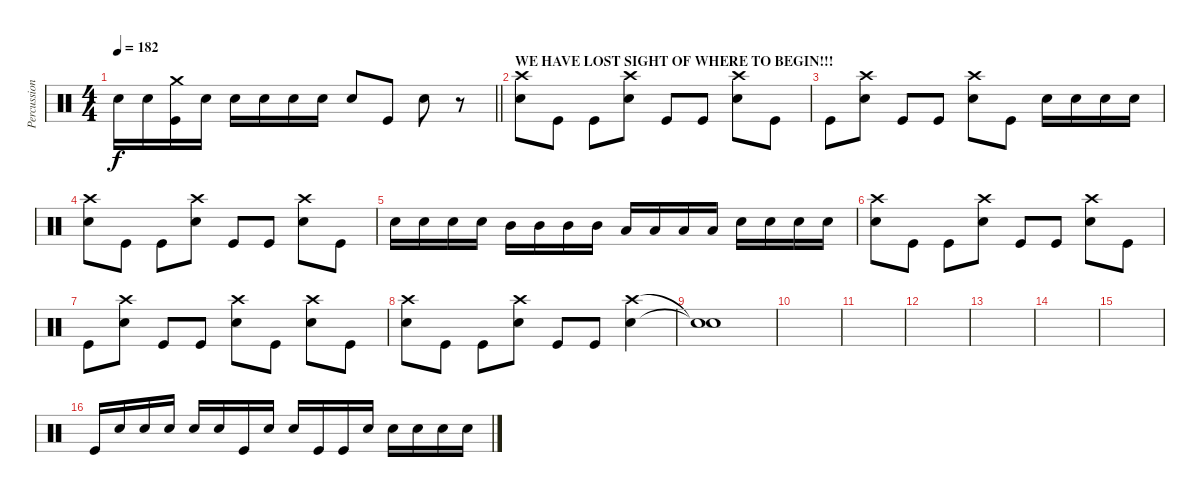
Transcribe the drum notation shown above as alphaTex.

\track ("Percussion" "Percussion") {instrument percussion}
\staff {score}
\articulation defaults
\ts (4 4)
\tempo 182
\clef neutral
\barLineRight lightlight
\ks c "Snare (hit) 2".16{dy f} "Snare (hit) 2".16
("Crash medium (hit)" "Kick (hit)").16 "Snare (hit) 2".16 "Snare (hit) 2".16 "Snare (hit) 2".16 "Snare (hit) 2".16 "Snare (hit) 2".16 "Snare (hit) 2".8 "Kick (hit)".8 "Snare (hit) 2".8 r.8 |
\section ("" "WE HAVE LOST SIGHT OF WHERE TO BEGIN!!!")
("Crash high (hit)" "Snare (hit) 2").8 "Kick (hit)".8 "Kick (hit)".8 ("Snare (hit) 2" "Crash high (hit)").8 "Kick (hit)".8 "Kick (hit)".8 ("Crash high (hit)" "Snare (hit) 2").8 "Kick (hit)".8 |
"Kick (hit)".8 ("Crash high (hit)" "Snare (hit) 2").8 "Kick (hit)".8 "Kick (hit)".8 ("Crash high (hit)" "Snare (hit) 2").8 "Kick (hit)".8 "Snare (hit) 2".16 "Snare (hit) 2".16 "Snare (hit) 2".16 "Snare (hit) 2".16 |
("Crash high (hit)" "Snare (hit) 2").8 "Kick (hit)".8 "Kick (hit)".8 ("Snare (hit) 2" "Crash high (hit)").8 "Kick (hit)".8 "Kick (hit)".8 ("Crash high (hit)" "Snare (hit) 2").8 "Kick (hit)".8 |
"Snare (hit) 2".16 "Snare (hit) 2".16 "Snare (hit) 2".16 "Snare (hit) 2".16 "Mid Tom (hit)".16 "Mid Tom (hit)".16 "Mid Tom (hit)".16 "Mid Tom (hit)".16 "Low Tom (hit)".16 "Low Tom (hit)".16 "Low Tom (hit)".16 "Low Tom (hit)".16 "Snare (hit) 2".16 "Snare (hit) 2".16 "Snare (hit) 2".16 "Snare (hit) 2".16 |
("Crash high (hit)" "Snare (hit) 2").8 "Kick (hit)".8 "Kick (hit)".8 ("Snare (hit) 2" "Crash high (hit)").8 "Kick (hit)".8 "Kick (hit)".8 ("Crash high (hit)" "Snare (hit) 2").8 "Kick (hit)".8 |
"Kick (hit)".8 ("Crash high (hit)" "Snare (hit) 2").8 "Kick (hit)".8 "Kick (hit)".8 ("Crash high (hit)" "Snare (hit) 2").8 "Kick (hit)".8 ("Crash high (hit)" "Snare (hit) 2").8 "Kick (hit)".8 |
("Crash high (hit)" "Snare (hit) 2").8 "Kick (hit)".8 "Kick (hit)".8 ("Snare (hit) 2" "Crash high (hit)").8 "Kick (hit)".8 "Kick (hit)".8 ("Crash high (hit)" "Snare (hit) 2").4 |
("Snare (hit)"{t} "Snare (hit)"{t}).1 |
|
|
|
|
|
|
"Kick (hit)".16 "Snare (hit) 2".16 "Snare (hit) 2".16 "Snare (hit) 2".16 "Snare (hit) 2".16 "Snare (hit) 2".16 "Kick (hit)".16 "Snare (hit) 2".16 "Snare (hit) 2".16 "Kick (hit)".16 "Kick (hit)".16 "Snare (hit) 2".16 "Snare (hit) 2".16 "Snare (hit) 2".16 "Snare (hit) 2".16 "Snare (hit) 2".16
